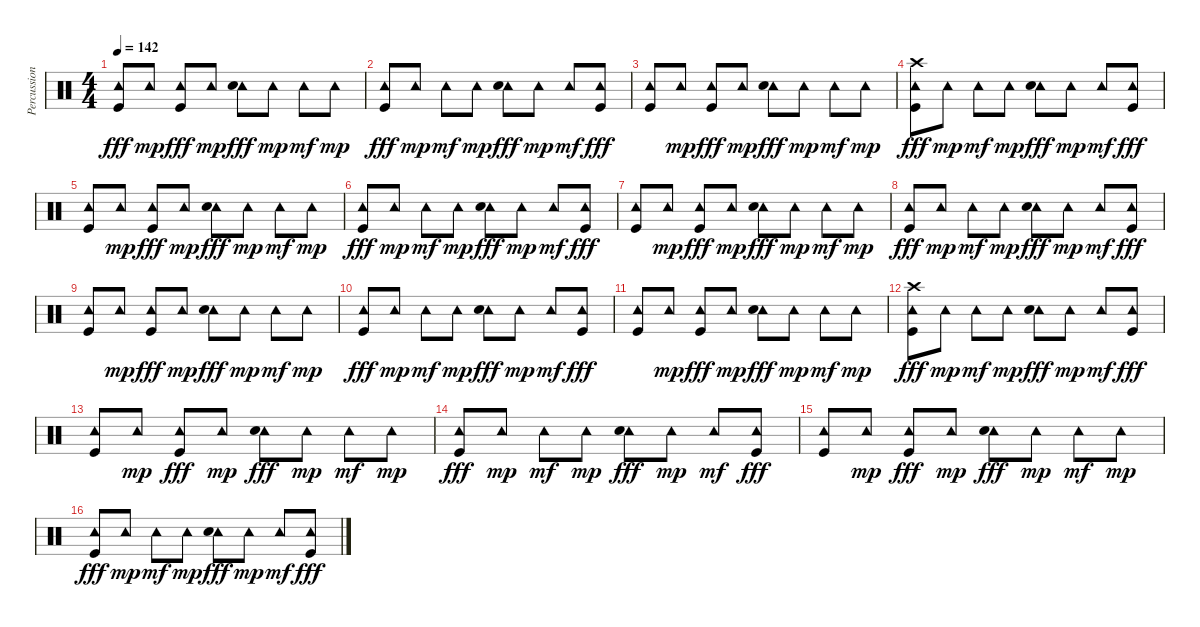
\track ("Percussion" "Percussion") {instrument percussion}
\staff {score}
\articulation defaults
\ts (4 4)
\tempo 142
\clef neutral
\ks c
("Tambourine (hit)" "Kick (hit)").8{dy fff} "Tambourine (hit)".8{dy mp} ("Tambourine (hit)" "Kick (hit)").8{dy fff} "Tambourine (hit)".8{dy mp} ("Tambourine (hit)" "Electric Snare (hit)").8{dy fff} "Tambourine (hit)".8{dy mp} "Tambourine (hit)".8{dy mf} "Tambourine (hit)".8{dy mp} |
("Tambourine (hit)" "Kick (hit)").8{dy fff} "Tambourine (hit)".8{dy mp} "Tambourine (hit)".8{dy mf} "Tambourine (hit)".8{dy mp} ("Tambourine (hit)" "Electric Snare (hit)").8{dy fff} "Tambourine (hit)".8{dy mp} "Tambourine (hit)".8{dy mf} ("Tambourine (hit)" "Kick (hit)").8{dy fff} |
("Tambourine (hit)" "Kick (hit)").8 "Tambourine (hit)".8{dy mp} ("Tambourine (hit)" "Kick (hit)").8{dy fff} "Tambourine (hit)".8{dy mp} ("Tambourine (hit)" "Electric Snare (hit)").8{dy fff} "Tambourine (hit)".8{dy mp} "Tambourine (hit)".8{dy mf} "Tambourine (hit)".8{dy mp} |
("Crash high (hit)" "Tambourine (hit)" "Kick (hit)").8{dy fff} "Tambourine (hit)".8{dy mp} "Tambourine (hit)".8{dy mf} "Tambourine (hit)".8{dy mp} ("Tambourine (hit)" "Electric Snare (hit)").8{dy fff} "Tambourine (hit)".8{dy mp} "Tambourine (hit)".8{dy mf} ("Tambourine (hit)" "Kick (hit)").8{dy fff} |
("Tambourine (hit)" "Kick (hit)").8 "Tambourine (hit)".8{dy mp} ("Tambourine (hit)" "Kick (hit)").8{dy fff} "Tambourine (hit)".8{dy mp} ("Tambourine (hit)" "Electric Snare (hit)").8{dy fff} "Tambourine (hit)".8{dy mp} "Tambourine (hit)".8{dy mf} "Tambourine (hit)".8{dy mp} |
("Tambourine (hit)" "Kick (hit)").8{dy fff} "Tambourine (hit)".8{dy mp} "Tambourine (hit)".8{dy mf} "Tambourine (hit)".8{dy mp} ("Tambourine (hit)" "Electric Snare (hit)").8{dy fff} "Tambourine (hit)".8{dy mp} "Tambourine (hit)".8{dy mf} ("Tambourine (hit)" "Kick (hit)").8{dy fff} |
("Tambourine (hit)" "Kick (hit)").8 "Tambourine (hit)".8{dy mp} ("Tambourine (hit)" "Kick (hit)").8{dy fff} "Tambourine (hit)".8{dy mp} ("Tambourine (hit)" "Electric Snare (hit)").8{dy fff} "Tambourine (hit)".8{dy mp} "Tambourine (hit)".8{dy mf} "Tambourine (hit)".8{dy mp} |
("Tambourine (hit)" "Kick (hit)").8{dy fff} "Tambourine (hit)".8{dy mp} "Tambourine (hit)".8{dy mf} "Tambourine (hit)".8{dy mp} ("Tambourine (hit)" "Electric Snare (hit)").8{dy fff} "Tambourine (hit)".8{dy mp} "Tambourine (hit)".8{dy mf} ("Tambourine (hit)" "Kick (hit)").8{dy fff} |
("Tambourine (hit)" "Kick (hit)").8 "Tambourine (hit)".8{dy mp} ("Tambourine (hit)" "Kick (hit)").8{dy fff} "Tambourine (hit)".8{dy mp} ("Tambourine (hit)" "Electric Snare (hit)").8{dy fff} "Tambourine (hit)".8{dy mp} "Tambourine (hit)".8{dy mf} "Tambourine (hit)".8{dy mp} |
("Tambourine (hit)" "Kick (hit)").8{dy fff} "Tambourine (hit)".8{dy mp} "Tambourine (hit)".8{dy mf} "Tambourine (hit)".8{dy mp} ("Tambourine (hit)" "Electric Snare (hit)").8{dy fff} "Tambourine (hit)".8{dy mp} "Tambourine (hit)".8{dy mf} ("Tambourine (hit)" "Kick (hit)").8{dy fff} |
("Tambourine (hit)" "Kick (hit)").8 "Tambourine (hit)".8{dy mp} ("Tambourine (hit)" "Kick (hit)").8{dy fff} "Tambourine (hit)".8{dy mp} ("Tambourine (hit)" "Electric Snare (hit)").8{dy fff} "Tambourine (hit)".8{dy mp} "Tambourine (hit)".8{dy mf} "Tambourine (hit)".8{dy mp} |
("Crash high (hit)" "Tambourine (hit)" "Kick (hit)").8{dy fff} "Tambourine (hit)".8{dy mp} "Tambourine (hit)".8{dy mf} "Tambourine (hit)".8{dy mp} ("Tambourine (hit)" "Electric Snare (hit)").8{dy fff} "Tambourine (hit)".8{dy mp} "Tambourine (hit)".8{dy mf} ("Tambourine (hit)" "Kick (hit)").8{dy fff} |
("Tambourine (hit)" "Kick (hit)").8 "Tambourine (hit)".8{dy mp} ("Tambourine (hit)" "Kick (hit)").8{dy fff} "Tambourine (hit)".8{dy mp} ("Tambourine (hit)" "Electric Snare (hit)").8{dy fff} "Tambourine (hit)".8{dy mp} "Tambourine (hit)".8{dy mf} "Tambourine (hit)".8{dy mp} |
("Tambourine (hit)" "Kick (hit)").8{dy fff} "Tambourine (hit)".8{dy mp} "Tambourine (hit)".8{dy mf} "Tambourine (hit)".8{dy mp} ("Tambourine (hit)" "Electric Snare (hit)").8{dy fff} "Tambourine (hit)".8{dy mp} "Tambourine (hit)".8{dy mf} ("Tambourine (hit)" "Kick (hit)").8{dy fff} |
("Tambourine (hit)" "Kick (hit)").8 "Tambourine (hit)".8{dy mp} ("Tambourine (hit)" "Kick (hit)").8{dy fff} "Tambourine (hit)".8{dy mp} ("Tambourine (hit)" "Electric Snare (hit)").8{dy fff} "Tambourine (hit)".8{dy mp} "Tambourine (hit)".8{dy mf} "Tambourine (hit)".8{dy mp} |
("Tambourine (hit)" "Kick (hit)").8{dy fff} "Tambourine (hit)".8{dy mp} "Tambourine (hit)".8{dy mf} "Tambourine (hit)".8{dy mp} ("Tambourine (hit)" "Electric Snare (hit)").8{dy fff} "Tambourine (hit)".8{dy mp} "Tambourine (hit)".8{dy mf} ("Tambourine (hit)" "Kick (hit)").8{dy fff}
